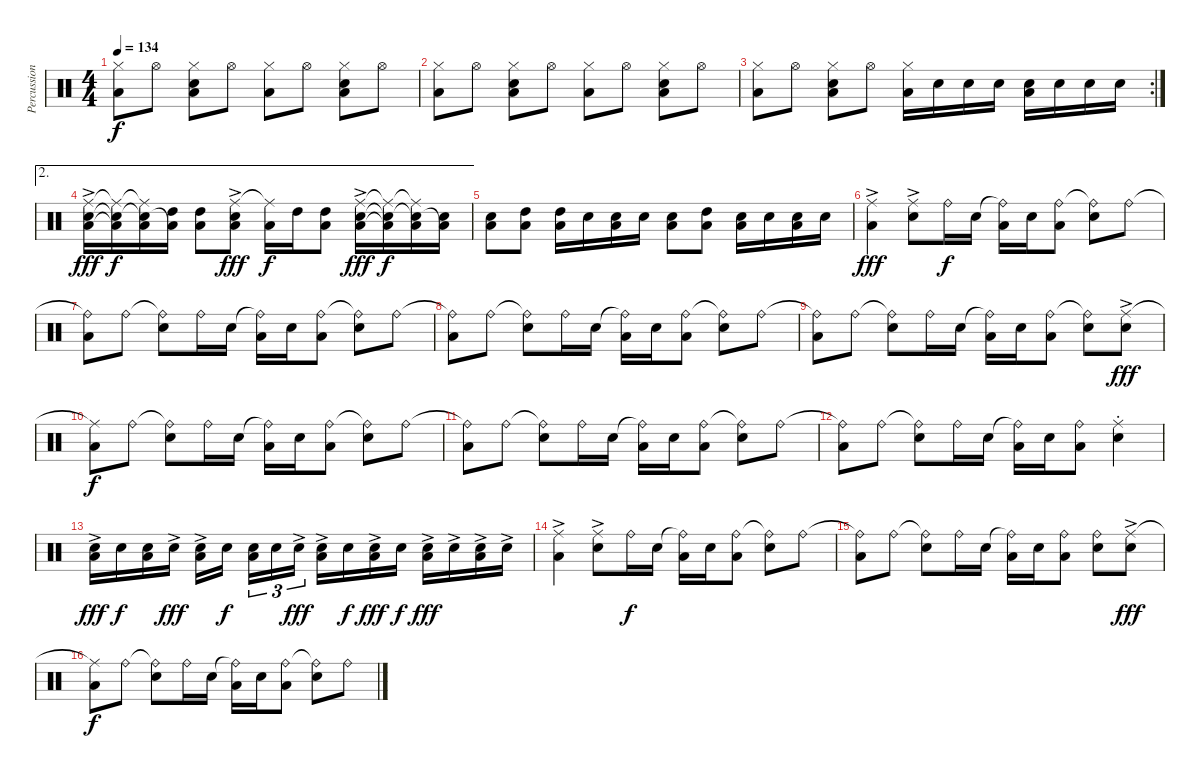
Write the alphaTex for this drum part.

\track ("Percussion" "Percussion") {instrument percussion}
\staff {score}
\articulation defaults
\ts (4 4)
\tempo 134
\clef neutral
\ks c
("Hi-Hat (closed)" "Low Floor Tom (hit)").8{dy f} "Hi-Hat (open)".8 ("Hi-Hat (closed)" "Snare (hit) 2" "Low Floor Tom (hit)").8 "Hi-Hat (open)".8 ("Hi-Hat (closed)" "Low Floor Tom (hit)").8 "Hi-Hat (open)".8 ("Hi-Hat (closed)" "Snare (hit) 2" "Low Floor Tom (hit)").8 "Hi-Hat (open)".8 |
("Hi-Hat (closed)" "Low Floor Tom (hit)").8 "Hi-Hat (open)".8 ("Hi-Hat (closed)" "Snare (hit) 2" "Low Floor Tom (hit)").8 "Hi-Hat (open)".8 ("Hi-Hat (closed)" "Low Floor Tom (hit)").8 "Hi-Hat (open)".8 ("Hi-Hat (closed)" "Snare (hit) 2" "Low Floor Tom (hit)").8 "Hi-Hat (open)".8 |
\rc 2
("Hi-Hat (closed)" "Low Floor Tom (hit)").8 "Hi-Hat (open)".8 ("Hi-Hat (closed)" "Snare (hit) 2" "Low Floor Tom (hit)").8 "Hi-Hat (open)".8 ("Hi-Hat (closed)" "Low Floor Tom (hit)").16 "Snare (hit) 2".16 "Snare (hit) 2".16 "Snare (hit) 2".16 ("Snare (hit) 2" "Low Floor Tom (hit)").16 "Snare (hit) 2".16 "Snare (hit) 2".16 "Snare (hit) 2".16 |
\ae 2
("Ride (middle)"{ac} "Snare (hit) 2" "Low Floor Tom (hit)").16{dy fff} ("Ride (middle)"{t} "Snare (hit) 2"{t} "Low Floor Tom (hit)"{t}).16{dy f} ("Ride (middle)"{t} "Snare (hit) 2"{t} "Low Floor Tom (hit)").16 ("High Tom (hit)" "Low Floor Tom (hit)"{t}).16 ("High Tom (hit)" "Low Floor Tom (hit)").8 ("Ride (middle)"{ac} "Snare (hit) 2" "Low Floor Tom (hit)").8{dy fff} ("Ride (middle)"{t} "Low Floor Tom (hit)").16{dy f} "High Tom (hit)".16 ("High Tom (hit)" "Low Floor Tom (hit)").8 ("Ride (middle)"{ac} "Snare (hit) 2" "Low Floor Tom (hit)").16{dy fff} ("Ride (middle)"{t} "Snare (hit) 2"{t} "Low Floor Tom (hit)"{t}).16{dy f} ("Ride (middle)"{t} "Snare (hit) 2"{t} "Low Floor Tom (hit)").16 ("Snare (hit) 2" "Low Floor Tom (hit)"{t}).16 |
("Snare (hit) 2" "Low Floor Tom (hit)").8 ("High Tom (hit)" "Low Floor Tom (hit)").8 ("High Tom (hit)" "Low Floor Tom (hit)").16 "Snare (hit) 2".16 ("Snare (hit) 2" "Low Floor Tom (hit)").16 "Snare (hit) 2".16 ("Snare (hit) 2" "Low Floor Tom (hit)").8 ("High Tom (hit)" "Low Floor Tom (hit)").8 ("Snare (hit) 2" "Low Floor Tom (hit)").16 "Snare (hit) 2".16 ("Snare (hit) 2" "Low Floor Tom (hit)").16 "Snare (hit) 2".16 |
("Ride (middle)"{ac} "Low Floor Tom (hit)").4{dy fff} ("Ride (middle)"{ac} "Snare (hit) 2").8 "Ride (bell)".16{dy f} "Snare (hit) 2".16 ("Ride (bell)"{t} "Low Floor Tom (hit)").16 "Snare (hit) 2".16 ("Ride (bell)" "Low Floor Tom (hit)").8 ("Ride (bell)"{t} "Snare (hit) 2").8 "Ride (bell)".8 |
("Ride (bell)"{t} "Low Floor Tom (hit)").8 "Ride (bell)".8 ("Ride (bell)"{t} "Snare (hit) 2").8 "Ride (bell)".16 "Snare (hit) 2".16 ("Ride (bell)"{t} "Low Floor Tom (hit)").16 "Snare (hit) 2".16 ("Ride (bell)" "Low Floor Tom (hit)").8 ("Ride (bell)"{t} "Snare (hit) 2").8 "Ride (bell)".8 |
("Ride (bell)"{t} "Low Floor Tom (hit)").8 "Ride (bell)".8 ("Ride (bell)"{t} "Snare (hit) 2").8 "Ride (bell)".16 "Snare (hit) 2".16 ("Ride (bell)"{t} "Low Floor Tom (hit)").16 "Snare (hit) 2".16 ("Ride (bell)" "Low Floor Tom (hit)").8 ("Ride (bell)"{t} "Snare (hit) 2").8 "Ride (bell)".8 |
("Ride (bell)"{t} "Low Floor Tom (hit)").8 "Ride (bell)".8 ("Ride (bell)"{t} "Snare (hit) 2").8 "Ride (bell)".16 "Snare (hit) 2".16 ("Ride (bell)"{t} "Low Floor Tom (hit)").16 "Snare (hit) 2".16 ("Ride (bell)" "Low Floor Tom (hit)").8 ("Ride (bell)"{t} "Snare (hit) 2").8 ("Ride (middle)"{ac} "Snare (hit) 2").8{dy fff} |
("Ride (middle)"{t} "Low Floor Tom (hit)").8{dy f} "Ride (bell)".8 ("Ride (bell)"{t} "Snare (hit) 2").8 "Ride (bell)".16 "Snare (hit) 2".16 ("Ride (bell)"{t} "Low Floor Tom (hit)").16 "Snare (hit) 2".16 ("Ride (bell)" "Low Floor Tom (hit)").8 ("Ride (bell)"{t} "Snare (hit) 2").8 "Ride (bell)".8 |
("Ride (bell)"{t} "Low Floor Tom (hit)").8 "Ride (bell)".8 ("Ride (bell)"{t} "Snare (hit) 2").8 "Ride (bell)".16 "Snare (hit) 2".16 ("Ride (bell)"{t} "Low Floor Tom (hit)").16 "Snare (hit) 2".16 ("Ride (bell)" "Low Floor Tom (hit)").8 ("Ride (bell)"{t} "Snare (hit) 2").8 "Ride (bell)".8 |
("Ride (bell)"{t} "Low Floor Tom (hit)").8 "Ride (bell)".8 ("Ride (bell)"{t} "Snare (hit) 2").8 "Ride (bell)".16 "Snare (hit) 2".16 ("Ride (bell)"{t} "Low Floor Tom (hit)").16 "Snare (hit) 2".16 ("Ride (bell)" "Low Floor Tom (hit)").8 ("Ride (middle)"{st} "Snare (hit) 2").4 |
("Snare (hit) 2"{ac} "Low Floor Tom (hit)").16{dy fff} "Snare (hit) 2".16{dy f} ("Snare (hit) 2" "Low Floor Tom (hit)").16 "Snare (hit) 2"{ac}.16{dy fff} ("Snare (hit) 2"{ac} "Low Floor Tom (hit)").16 "Snare (hit) 2".16{dy f} ("Snare (hit) 2" "Low Floor Tom (hit)").16{tu (3 2)} "Snare (hit) 2".16{tu (3 2)} "Snare (hit) 2"{ac}.16{tu (3 2) dy fff} ("Snare (hit) 2"{ac} "Low Floor Tom (hit)").16 "Snare (hit) 2".16{dy f} ("Snare (hit) 2"{ac} "Low Floor Tom (hit)").16{dy fff} "Snare (hit) 2".16{dy f} ("Snare (hit) 2"{ac} "Low Floor Tom (hit)").16{dy fff} "Snare (hit) 2"{ac}.16 ("Snare (hit) 2"{ac} "Low Floor Tom (hit)").16 "Snare (hit) 2"{ac}.16 |
("Ride (middle)"{ac} "Low Floor Tom (hit)").4 ("Ride (middle)"{ac} "Snare (hit) 2").8 "Ride (bell)".16{dy f} "Snare (hit) 2".16 ("Ride (bell)"{t} "Low Floor Tom (hit)").16 "Snare (hit) 2".16 ("Ride (bell)" "Low Floor Tom (hit)").8 ("Ride (bell)"{t} "Snare (hit) 2").8 "Ride (bell)".8 |
("Ride (bell)"{t} "Low Floor Tom (hit)").8 "Ride (bell)".8 ("Ride (bell)"{t} "Snare (hit) 2").8 "Ride (bell)".16 "Snare (hit) 2".16 ("Ride (bell)"{t} "Low Floor Tom (hit)").16 "Snare (hit) 2".16 ("Ride (bell)" "Low Floor Tom (hit)").8 ("Ride (bell)" "Snare (hit) 2").8 ("Ride (middle)"{ac} "Snare (hit) 2").8{dy fff} |
("Ride (middle)"{t} "Low Floor Tom (hit)").8{dy f} "Ride (bell)".8 ("Ride (bell)"{t} "Snare (hit) 2").8 "Ride (bell)".16 "Snare (hit) 2".16 ("Ride (bell)"{t} "Low Floor Tom (hit)").16 "Snare (hit) 2".16 ("Ride (bell)" "Low Floor Tom (hit)").8 ("Ride (bell)"{t} "Snare (hit) 2").8 "Ride (bell)".8
